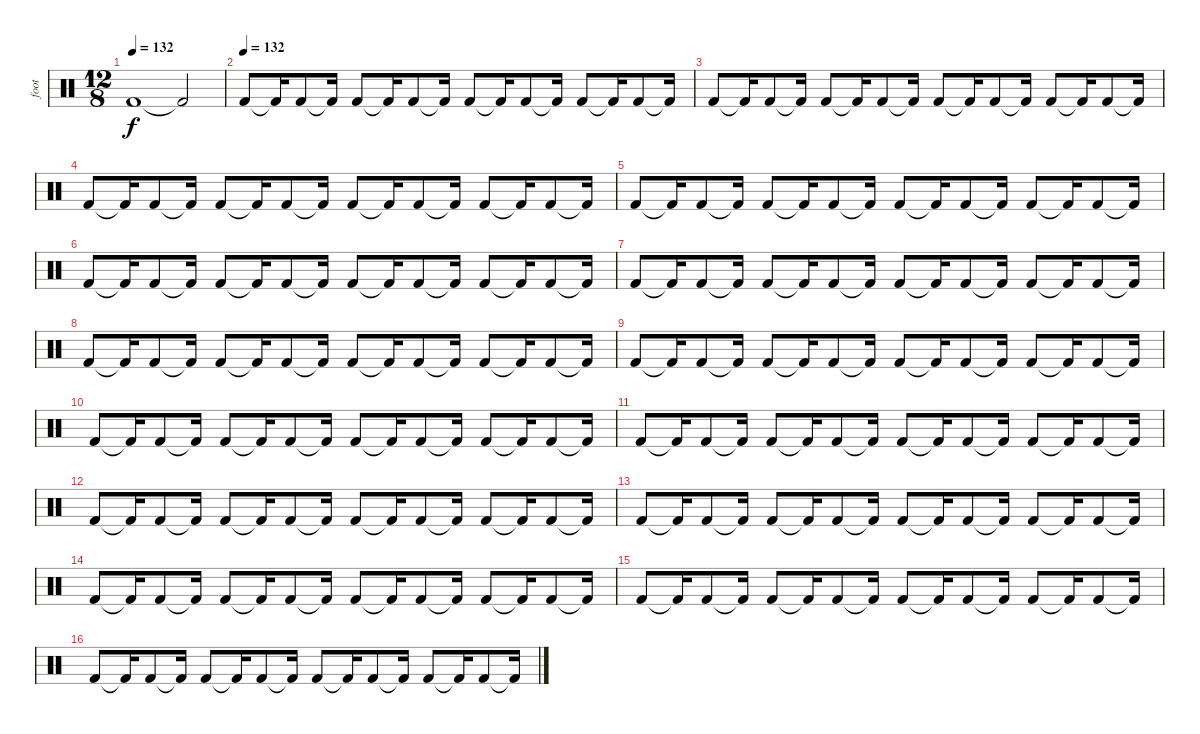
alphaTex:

\track ("foot" "foot") {instrument percussion}
\staff {score}
\articulation defaults
\ts (12 8)
\tempo 132
\clef neutral
\ks c "Kick (hit) 2".1{dy f} "Kick (hit) 2"{t}.2
|
\tempo (132)
"Kick (hit) 2".8 "Kick (hit) 2"{t}.16 "Kick (hit) 2".8 "Kick (hit) 2"{t}.16 "Kick (hit) 2".8 "Kick (hit) 2"{t}.16 "Kick (hit) 2".8 "Kick (hit) 2"{t}.16 "Kick (hit) 2".8 "Kick (hit) 2"{t}.16 "Kick (hit) 2".8 "Kick (hit) 2"{t}.16 "Kick (hit) 2".8 "Kick (hit) 2"{t}.16 "Kick (hit) 2".8 "Kick (hit) 2"{t}.16 |
"Kick (hit) 2".8 "Kick (hit) 2"{t}.16 "Kick (hit) 2".8 "Kick (hit) 2"{t}.16 "Kick (hit) 2".8 "Kick (hit) 2"{t}.16 "Kick (hit) 2".8 "Kick (hit) 2"{t}.16 "Kick (hit) 2".8 "Kick (hit) 2"{t}.16 "Kick (hit) 2".8 "Kick (hit) 2"{t}.16 "Kick (hit) 2".8 "Kick (hit) 2"{t}.16 "Kick (hit) 2".8 "Kick (hit) 2"{t}.16 |
"Kick (hit) 2".8 "Kick (hit) 2"{t}.16 "Kick (hit) 2".8 "Kick (hit) 2"{t}.16 "Kick (hit) 2".8 "Kick (hit) 2"{t}.16 "Kick (hit) 2".8 "Kick (hit) 2"{t}.16 "Kick (hit) 2".8 "Kick (hit) 2"{t}.16 "Kick (hit) 2".8 "Kick (hit) 2"{t}.16 "Kick (hit) 2".8 "Kick (hit) 2"{t}.16 "Kick (hit) 2".8 "Kick (hit) 2"{t}.16 |
"Kick (hit) 2".8 "Kick (hit) 2"{t}.16 "Kick (hit) 2".8 "Kick (hit) 2"{t}.16 "Kick (hit) 2".8 "Kick (hit) 2"{t}.16 "Kick (hit) 2".8 "Kick (hit) 2"{t}.16 "Kick (hit) 2".8 "Kick (hit) 2"{t}.16 "Kick (hit) 2".8 "Kick (hit) 2"{t}.16 "Kick (hit) 2".8 "Kick (hit) 2"{t}.16 "Kick (hit) 2".8 "Kick (hit) 2"{t}.16 |
"Kick (hit) 2".8 "Kick (hit) 2"{t}.16 "Kick (hit) 2".8 "Kick (hit) 2"{t}.16 "Kick (hit) 2".8 "Kick (hit) 2"{t}.16 "Kick (hit) 2".8 "Kick (hit) 2"{t}.16 "Kick (hit) 2".8 "Kick (hit) 2"{t}.16 "Kick (hit) 2".8 "Kick (hit) 2"{t}.16 "Kick (hit) 2".8 "Kick (hit) 2"{t}.16 "Kick (hit) 2".8 "Kick (hit) 2"{t}.16 |
"Kick (hit) 2".8 "Kick (hit) 2"{t}.16 "Kick (hit) 2".8 "Kick (hit) 2"{t}.16 "Kick (hit) 2".8 "Kick (hit) 2"{t}.16 "Kick (hit) 2".8 "Kick (hit) 2"{t}.16 "Kick (hit) 2".8 "Kick (hit) 2"{t}.16 "Kick (hit) 2".8 "Kick (hit) 2"{t}.16 "Kick (hit) 2".8 "Kick (hit) 2"{t}.16 "Kick (hit) 2".8 "Kick (hit) 2"{t}.16 |
"Kick (hit) 2".8 "Kick (hit) 2"{t}.16 "Kick (hit) 2".8 "Kick (hit) 2"{t}.16 "Kick (hit) 2".8 "Kick (hit) 2"{t}.16 "Kick (hit) 2".8 "Kick (hit) 2"{t}.16 "Kick (hit) 2".8 "Kick (hit) 2"{t}.16 "Kick (hit) 2".8 "Kick (hit) 2"{t}.16 "Kick (hit) 2".8 "Kick (hit) 2"{t}.16 "Kick (hit) 2".8 "Kick (hit) 2"{t}.16 |
"Kick (hit) 2".8 "Kick (hit) 2"{t}.16 "Kick (hit) 2".8 "Kick (hit) 2"{t}.16 "Kick (hit) 2".8 "Kick (hit) 2"{t}.16 "Kick (hit) 2".8 "Kick (hit) 2"{t}.16 "Kick (hit) 2".8 "Kick (hit) 2"{t}.16 "Kick (hit) 2".8 "Kick (hit) 2"{t}.16 "Kick (hit) 2".8 "Kick (hit) 2"{t}.16 "Kick (hit) 2".8 "Kick (hit) 2"{t}.16 |
"Kick (hit) 2".8 "Kick (hit) 2"{t}.16 "Kick (hit) 2".8 "Kick (hit) 2"{t}.16 "Kick (hit) 2".8 "Kick (hit) 2"{t}.16 "Kick (hit) 2".8 "Kick (hit) 2"{t}.16 "Kick (hit) 2".8 "Kick (hit) 2"{t}.16 "Kick (hit) 2".8 "Kick (hit) 2"{t}.16 "Kick (hit) 2".8 "Kick (hit) 2"{t}.16 "Kick (hit) 2".8 "Kick (hit) 2"{t}.16 |
"Kick (hit) 2".8 "Kick (hit) 2"{t}.16 "Kick (hit) 2".8 "Kick (hit) 2"{t}.16 "Kick (hit) 2".8 "Kick (hit) 2"{t}.16 "Kick (hit) 2".8 "Kick (hit) 2"{t}.16 "Kick (hit) 2".8 "Kick (hit) 2"{t}.16 "Kick (hit) 2".8 "Kick (hit) 2"{t}.16 "Kick (hit) 2".8 "Kick (hit) 2"{t}.16 "Kick (hit) 2".8 "Kick (hit) 2"{t}.16 |
"Kick (hit) 2".8 "Kick (hit) 2"{t}.16 "Kick (hit) 2".8 "Kick (hit) 2"{t}.16 "Kick (hit) 2".8 "Kick (hit) 2"{t}.16 "Kick (hit) 2".8 "Kick (hit) 2"{t}.16 "Kick (hit) 2".8 "Kick (hit) 2"{t}.16 "Kick (hit) 2".8 "Kick (hit) 2"{t}.16 "Kick (hit) 2".8 "Kick (hit) 2"{t}.16 "Kick (hit) 2".8 "Kick (hit) 2"{t}.16 |
"Kick (hit) 2".8 "Kick (hit) 2"{t}.16 "Kick (hit) 2".8 "Kick (hit) 2"{t}.16 "Kick (hit) 2".8 "Kick (hit) 2"{t}.16 "Kick (hit) 2".8 "Kick (hit) 2"{t}.16 "Kick (hit) 2".8 "Kick (hit) 2"{t}.16 "Kick (hit) 2".8 "Kick (hit) 2"{t}.16 "Kick (hit) 2".8 "Kick (hit) 2"{t}.16 "Kick (hit) 2".8 "Kick (hit) 2"{t}.16 |
"Kick (hit) 2".8 "Kick (hit) 2"{t}.16 "Kick (hit) 2".8 "Kick (hit) 2"{t}.16 "Kick (hit) 2".8 "Kick (hit) 2"{t}.16 "Kick (hit) 2".8 "Kick (hit) 2"{t}.16 "Kick (hit) 2".8 "Kick (hit) 2"{t}.16 "Kick (hit) 2".8 "Kick (hit) 2"{t}.16 "Kick (hit) 2".8 "Kick (hit) 2"{t}.16 "Kick (hit) 2".8 "Kick (hit) 2"{t}.16 |
"Kick (hit) 2".8 "Kick (hit) 2"{t}.16 "Kick (hit) 2".8 "Kick (hit) 2"{t}.16 "Kick (hit) 2".8 "Kick (hit) 2"{t}.16 "Kick (hit) 2".8 "Kick (hit) 2"{t}.16 "Kick (hit) 2".8 "Kick (hit) 2"{t}.16 "Kick (hit) 2".8 "Kick (hit) 2"{t}.16 "Kick (hit) 2".8 "Kick (hit) 2"{t}.16 "Kick (hit) 2".8 "Kick (hit) 2"{t}.16 |
"Kick (hit) 2".8 "Kick (hit) 2"{t}.16 "Kick (hit) 2".8 "Kick (hit) 2"{t}.16 "Kick (hit) 2".8 "Kick (hit) 2"{t}.16 "Kick (hit) 2".8 "Kick (hit) 2"{t}.16 "Kick (hit) 2".8 "Kick (hit) 2"{t}.16 "Kick (hit) 2".8 "Kick (hit) 2"{t}.16 "Kick (hit) 2".8 "Kick (hit) 2"{t}.16 "Kick (hit) 2".8 "Kick (hit) 2"{t}.16
